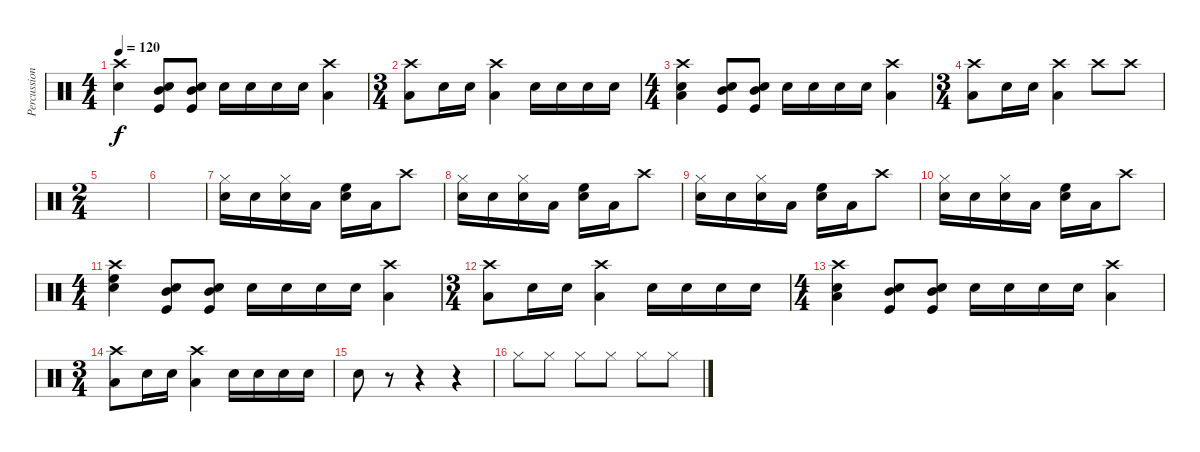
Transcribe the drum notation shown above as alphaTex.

\track ("Percussions" "Percussion") {instrument percussion}
\staff {score}
\articulation defaults
\ts (4 4)
\tempo 120
\clef neutral
\ks c
("Crash high (hit)" "Snare (hit) 2").4{dy f} ("Mid Tom (hit)" "Electric Snare (hit)" "Kick (hit)").8 ("Mid Tom (hit)" "Electric Snare (hit)" "Kick (hit)").8 "Snare (hit) 2".16 "Snare (hit) 2".16 "Snare (hit) 2".16 "Snare (hit) 2".16 ("Low Tom (hit)" "Crash high (hit)").4 |
\ts (3 4)
("Crash high (hit)" "Low Tom (hit)").8 "Snare (hit) 2".16 "Snare (hit) 2".16 ("Low Tom (hit)" "Crash high (hit)").4 "Snare (hit) 2".16 "Snare (hit) 2".16 "Snare (hit) 2".16 "Snare (hit) 2".16 |
\ts (4 4)
("Low Tom (hit)" "Crash high (hit)" "Snare (hit) 2").4 ("Mid Tom (hit)" "Electric Snare (hit)" "Kick (hit)").8 ("Mid Tom (hit)" "Electric Snare (hit)" "Kick (hit)").8 "Snare (hit) 2".16 "Snare (hit) 2".16 "Snare (hit) 2".16 "Snare (hit) 2".16 ("Low Tom (hit)" "Crash high (hit)").4 |
\ts (3 4)
("Crash high (hit)" "Low Tom (hit)").8 "Snare (hit) 2".16 "Snare (hit) 2".16 ("Low Tom (hit)" "Crash high (hit)").4 "Crash high (hit)".8 "Crash high (hit)".8 |
\ts (2 4)
|
|
("Snare (hit) 2" "Hi-Hat (closed)").16 "Snare (hit) 2".16 ("Snare (hit) 2" "Hi-Hat (closed)").16 "Low Tom (hit)".16 ("Snare (hit) 2" "High Floor Tom (hit)").16 "Low Tom (hit)".16 "Crash high (hit)".8 |
("Snare (hit) 2" "Hi-Hat (closed)").16 "Snare (hit) 2".16 ("Snare (hit) 2" "Hi-Hat (closed)").16 "Low Tom (hit)".16 ("Snare (hit) 2" "High Floor Tom (hit)").16 "Low Tom (hit)".16 "Crash high (hit)".8 |
("Snare (hit) 2" "Hi-Hat (closed)").16 "Snare (hit) 2".16 ("Snare (hit) 2" "Hi-Hat (closed)").16 "Low Tom (hit)".16 ("Snare (hit) 2" "High Floor Tom (hit)").16 "Low Tom (hit)".16 "Crash high (hit)".8 |
("Snare (hit) 2" "Hi-Hat (closed)").16 "Snare (hit) 2".16 ("Snare (hit) 2" "Hi-Hat (closed)").16 "Low Tom (hit)".16 ("Snare (hit) 2" "High Floor Tom (hit)").16 "Low Tom (hit)".16 "Crash high (hit)".8 |
\ts (4 4)
("High Floor Tom (hit)" "Crash high (hit)" "Snare (hit) 2").4 ("Mid Tom (hit)" "Electric Snare (hit)" "Kick (hit)").8 ("Mid Tom (hit)" "Electric Snare (hit)" "Kick (hit)").8 "Snare (hit) 2".16 "Snare (hit) 2".16 "Snare (hit) 2".16 "Snare (hit) 2".16 ("Low Tom (hit)" "Crash high (hit)").4 |
\ts (3 4)
("Crash high (hit)" "Low Tom (hit)").8 "Snare (hit) 2".16 "Snare (hit) 2".16 ("Low Tom (hit)" "Crash high (hit)").4 "Snare (hit) 2".16 "Snare (hit) 2".16 "Snare (hit) 2".16 "Snare (hit) 2".16 |
\ts (4 4)
("Low Tom (hit)" "Crash high (hit)" "Snare (hit) 2").4 ("Mid Tom (hit)" "Electric Snare (hit)" "Kick (hit)").8 ("Mid Tom (hit)" "Electric Snare (hit)" "Kick (hit)").8 "Snare (hit) 2".16 "Snare (hit) 2".16 "Snare (hit) 2".16 "Snare (hit) 2".16 ("Low Tom (hit)" "Crash high (hit)").4 |
\ts (3 4)
("Crash high (hit)" "Low Tom (hit)").8 "Snare (hit) 2".16 "Snare (hit) 2".16 ("Low Tom (hit)" "Crash high (hit)").4 "Snare (hit) 2".16 "Snare (hit) 2".16 "Snare (hit) 2".16 "Snare (hit) 2".16 |
"Snare (hit) 2".8 r.8 r.4 r.4 |
"Hi-Hat (closed)".8 "Hi-Hat (closed)".8 "Hi-Hat (closed)".8 "Hi-Hat (closed)".8 "Hi-Hat (closed)".8 "Hi-Hat (closed)".8
